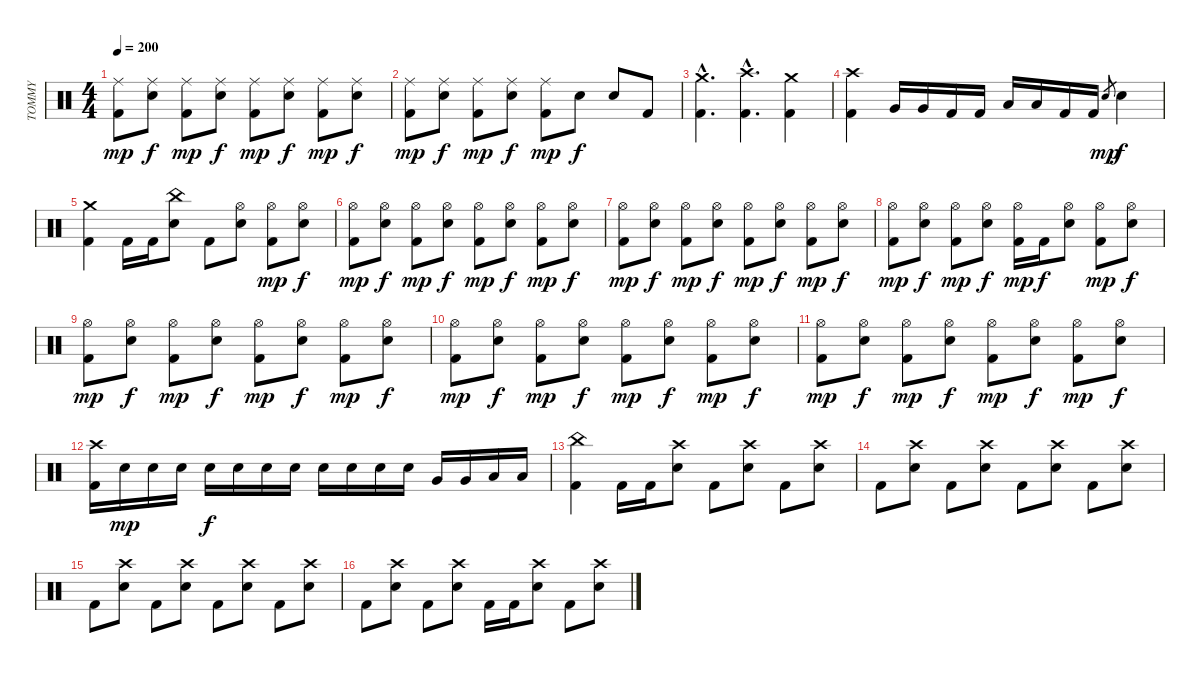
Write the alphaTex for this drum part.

\track ("TOMMY" "TOMMY") {instrument percussion}
\staff {score}
\articulation defaults
\ts (4 4)
\tempo 200
\clef neutral
\ks c
("Kick (hit) 2" "Ride (middle)").8{dy mp} ("Snare (hit) 2" "Ride (middle)").8{dy f} ("Kick (hit) 2" "Ride (middle)").8{dy mp} ("Snare (hit) 2" "Ride (middle)").8{dy f} ("Kick (hit) 2" "Ride (middle)").8{dy mp} ("Snare (hit) 2" "Ride (middle)").8{dy f} ("Kick (hit) 2" "Ride (middle)").8{dy mp} ("Snare (hit) 2" "Ride (middle)").8{dy f} |
("Kick (hit) 2" "Ride (middle)").8{dy mp} ("Snare (hit) 2" "Ride (middle)").8{dy f} ("Kick (hit) 2" "Ride (middle)").8{dy mp} ("Snare (hit) 2" "Ride (middle)").8{dy f} ("Kick (hit) 2" "Ride (middle)").8{dy mp} "Snare (hit) 2".8{dy f} "Snare (hit) 2".8 "Kick (hit) 2".8 |
("Kick (hit) 2"{hac} "Crash medium (hit)"{hac}).4{d} ("Kick (hit) 2"{hac} "Crash high (hit)"{hac}).4{d} ("Kick (hit) 2" "Crash medium (hit)").4 |
("Kick (hit) 2" "Crash high (hit)").4 "Very Low Tom (hit)".16 "Very Low Tom (hit)".16 "Kick (hit) 2".16 "Kick (hit) 2".16 "Low Floor Tom (hit)".16 "Low Floor Tom (hit)".16 "Kick (hit) 2".16 "Kick (hit) 2".16 "Snare (hit) 2".8{gr dy mp} "Snare (hit) 2".4{dy f} |
("Kick (hit) 2" "Crash medium (hit)").4 "Kick (hit) 2".16 "Kick (hit) 2".16 ("Snare (hit) 2" "China (hit)").8 "Kick (hit) 2".8 ("Snare (hit) 2" "Hi-Hat (open)").8 ("Kick (hit) 2" "Hi-Hat (open)").8{dy mp} ("Snare (hit) 2" "Hi-Hat (open)").8{dy f} |
("Kick (hit) 2" "Hi-Hat (open)").8{dy mp} ("Snare (hit) 2" "Hi-Hat (open)").8{dy f} ("Kick (hit) 2" "Hi-Hat (open)").8{dy mp} ("Snare (hit) 2" "Hi-Hat (open)").8{dy f} ("Kick (hit) 2" "Hi-Hat (open)").8{dy mp} ("Snare (hit) 2" "Hi-Hat (open)").8{dy f} ("Kick (hit) 2" "Hi-Hat (open)").8{dy mp} ("Snare (hit) 2" "Hi-Hat (open)").8{dy f} |
("Kick (hit) 2" "Hi-Hat (open)").8{dy mp} ("Snare (hit) 2" "Hi-Hat (open)").8{dy f} ("Kick (hit) 2" "Hi-Hat (open)").8{dy mp} ("Snare (hit) 2" "Hi-Hat (open)").8{dy f} ("Kick (hit) 2" "Hi-Hat (open)").8{dy mp} ("Snare (hit) 2" "Hi-Hat (open)").8{dy f} ("Kick (hit) 2" "Hi-Hat (open)").8{dy mp} ("Snare (hit) 2" "Hi-Hat (open)").8{dy f} |
("Kick (hit) 2" "Hi-Hat (open)").8{dy mp} ("Snare (hit) 2" "Hi-Hat (open)").8{dy f} ("Kick (hit) 2" "Hi-Hat (open)").8{dy mp} ("Snare (hit) 2" "Hi-Hat (open)").8{dy f} ("Kick (hit) 2" "Hi-Hat (open)").16{dy mp} "Kick (hit) 2".16{dy f} ("Snare (hit) 2" "Hi-Hat (open)").8 ("Kick (hit) 2" "Hi-Hat (open)").8{dy mp} ("Snare (hit) 2" "Hi-Hat (open)").8{dy f} |
("Kick (hit) 2" "Hi-Hat (open)").8{dy mp} ("Snare (hit) 2" "Hi-Hat (open)").8{dy f} ("Kick (hit) 2" "Hi-Hat (open)").8{dy mp} ("Snare (hit) 2" "Hi-Hat (open)").8{dy f} ("Kick (hit) 2" "Hi-Hat (open)").8{dy mp} ("Snare (hit) 2" "Hi-Hat (open)").8{dy f} ("Kick (hit) 2" "Hi-Hat (open)").8{dy mp} ("Snare (hit) 2" "Hi-Hat (open)").8{dy f} |
("Kick (hit) 2" "Hi-Hat (open)").8{dy mp} ("Snare (hit) 2" "Hi-Hat (open)").8{dy f} ("Kick (hit) 2" "Hi-Hat (open)").8{dy mp} ("Snare (hit) 2" "Hi-Hat (open)").8{dy f} ("Kick (hit) 2" "Hi-Hat (open)").8{dy mp} ("Snare (hit) 2" "Hi-Hat (open)").8{dy f} ("Kick (hit) 2" "Hi-Hat (open)").8{dy mp} ("Snare (hit) 2" "Hi-Hat (open)").8{dy f} |
("Kick (hit) 2" "Hi-Hat (open)").8{dy mp} ("Snare (hit) 2" "Hi-Hat (open)").8{dy f} ("Kick (hit) 2" "Hi-Hat (open)").8{dy mp} ("Snare (hit) 2" "Hi-Hat (open)").8{dy f} ("Kick (hit) 2" "Hi-Hat (open)").8{dy mp} ("Snare (hit) 2" "Hi-Hat (open)").8{dy f} ("Kick (hit) 2" "Hi-Hat (open)").8{dy mp} ("Snare (hit) 2" "Hi-Hat (open)").8{dy f} |
("Kick (hit) 2" "Crash high (hit)").16 "Snare (hit) 2".16{dy mp} "Snare (hit) 2".16 "Snare (hit) 2".16 "Snare (hit) 2".16{dy f} "Snare (hit) 2".16 "Snare (hit) 2".16 "Snare (hit) 2".16 "Snare (hit) 2".16 "Snare (hit) 2".16 "Snare (hit) 2".16 "Snare (hit) 2".16 "Very Low Tom (hit)".16 "Very Low Tom (hit)".16 "Low Floor Tom (hit)".16 "Low Floor Tom (hit)".16 |
("Kick (hit) 2" "China (hit)").4 "Kick (hit) 2".16 "Kick (hit) 2".16 ("Snare (hit) 2" "Crash high (hit)").8 "Kick (hit) 2".8 ("Snare (hit) 2" "Crash high (hit)").8 "Kick (hit) 2".8 ("Snare (hit) 2" "Crash high (hit)").8 |
"Kick (hit) 2".8 ("Snare (hit) 2" "Crash high (hit)").8 "Kick (hit) 2".8 ("Snare (hit) 2" "Crash high (hit)").8 "Kick (hit) 2".8 ("Snare (hit) 2" "Crash high (hit)").8 "Kick (hit) 2".8 ("Snare (hit) 2" "Crash high (hit)").8 |
"Kick (hit) 2".8 ("Snare (hit) 2" "Crash high (hit)").8 "Kick (hit) 2".8 ("Snare (hit) 2" "Crash high (hit)").8 "Kick (hit) 2".8 ("Snare (hit) 2" "Crash high (hit)").8 "Kick (hit) 2".8 ("Snare (hit) 2" "Crash high (hit)").8 |
"Kick (hit) 2".8 ("Snare (hit) 2" "Crash high (hit)").8 "Kick (hit) 2".8 ("Snare (hit) 2" "Crash high (hit)").8 "Kick (hit) 2".16 "Kick (hit) 2".16 ("Snare (hit) 2" "Crash high (hit)").8 "Kick (hit) 2".8 ("Snare (hit) 2" "Crash high (hit)").8
